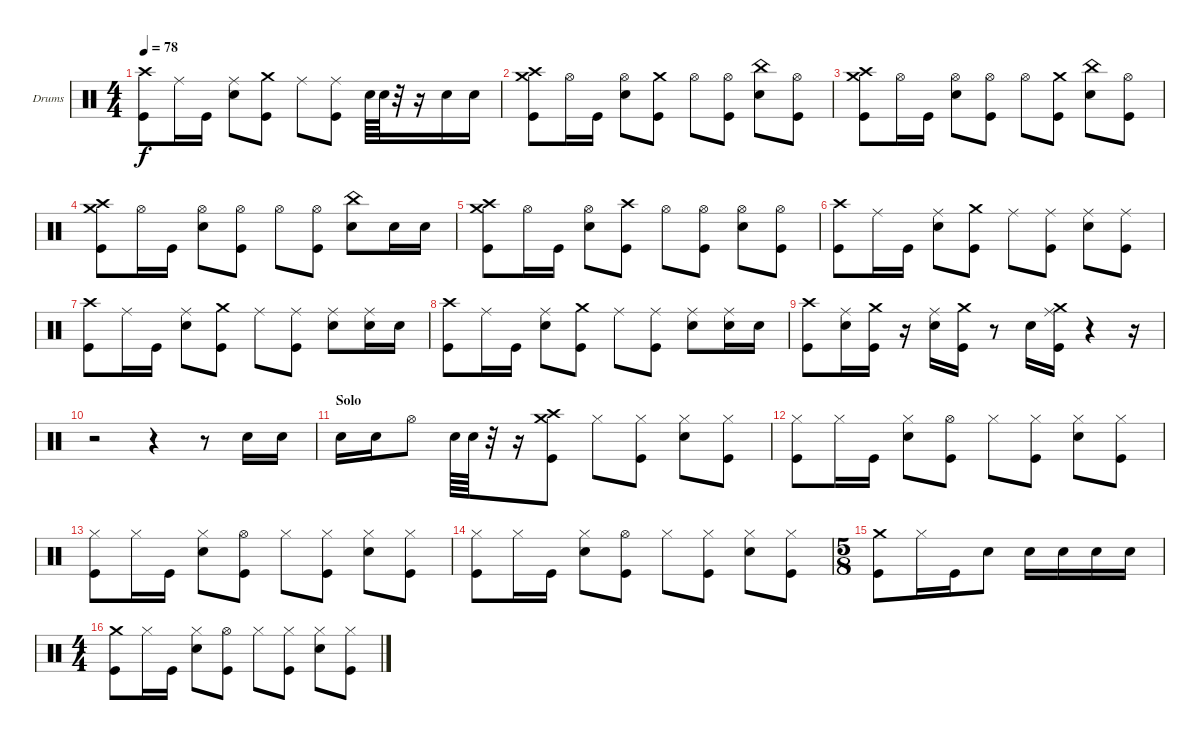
\defaultSystemsLayout 4
\bracketExtendMode nobrackets
\firstSystemTrackNameOrientation horizontal
\otherSystemsTrackNameOrientation horizontal
\track ("Dave Krusen" "Drums") {instrument percussion}
\staff {score}
\articulation defaults
\ts (4 4)
\tempo 78
\clef neutral
\ks c
("Crash high (hit)" "Kick (hit)").8{dy f} "Ride (middle)".16 "Kick (hit)".16 ("Ride (middle)" "Snare (hit) 2").8 ("Crash medium (hit)" "Kick (hit)").8 "Ride (middle)".8 ("Ride (middle)" "Kick (hit)").8 "Snare (hit) 2".64 "Snare (hit) 2".64 r.32 r.16 "Snare (hit) 2".16 "Snare (hit) 2".16 |
("Crash high (hit)" "Crash medium (hit)" "Kick (hit)").8 "Hi-Hat (open)".16 "Kick (hit)".16 ("Hi-Hat (open)" "Snare (hit) 2").8 ("Crash medium (hit)" "Kick (hit)").8 "Hi-Hat (open)".8 ("Hi-Hat (open)" "Kick (hit)").8 ("China (hit)" "Snare (hit) 2").8 ("Hi-Hat (open)" "Kick (hit)").8 |
("Crash high (hit)" "Crash medium (hit)" "Kick (hit)").8 "Hi-Hat (open)".16 "Kick (hit)".16 ("Hi-Hat (open)" "Snare (hit) 2").8 ("Hi-Hat (open)" "Kick (hit)").8 "Hi-Hat (open)".8 ("Crash medium (hit)" "Kick (hit)").8 ("China (hit)" "Snare (hit) 2").8 ("Hi-Hat (open)" "Kick (hit)").8 |
("Crash high (hit)" "Crash medium (hit)" "Kick (hit)").8 "Hi-Hat (open)".16 "Kick (hit)".16 ("Hi-Hat (open)" "Snare (hit) 2").8 ("Hi-Hat (open)" "Kick (hit)").8 "Hi-Hat (open)".8 ("Hi-Hat (open)" "Kick (hit)").8 ("China (hit)" "Snare (hit) 2").8 "Snare (hit) 2".16 "Snare (hit) 2".16 |
("Crash high (hit)" "Crash medium (hit)" "Kick (hit)").8 "Hi-Hat (open)".16 "Kick (hit)".16 ("Hi-Hat (open)" "Snare (hit) 2").8 ("Crash high (hit)" "Kick (hit)").8 "Hi-Hat (open)".8 ("Hi-Hat (open)" "Kick (hit)").8 ("Hi-Hat (open)" "Snare (hit) 2").8 ("Hi-Hat (open)" "Kick (hit)").8 |
("Crash high (hit)" "Kick (hit)").8 "Ride (middle)".16 "Kick (hit)".16 ("Ride (middle)" "Snare (hit) 2").8 ("Crash medium (hit)" "Kick (hit)").8 "Ride (middle)".8 ("Ride (middle)" "Kick (hit)").8 ("Ride (middle)" "Snare (hit) 2").8 ("Ride (middle)" "Kick (hit)").8 |
("Crash high (hit)" "Kick (hit)").8 "Ride (middle)".16 "Kick (hit)".16 ("Ride (middle)" "Snare (hit) 2").8 ("Crash medium (hit)" "Kick (hit)").8 "Ride (middle)".8 ("Ride (middle)" "Kick (hit)").8 ("Ride (middle)" "Snare (hit) 2").8 ("Ride (middle)" "Snare (hit) 2").16 "Snare (hit) 2".16 |
("Crash high (hit)" "Kick (hit)").8 "Ride (middle)".16 "Kick (hit)".16 ("Ride (middle)" "Snare (hit) 2").8 ("Crash medium (hit)" "Kick (hit)").8 "Ride (middle)".8 ("Ride (middle)" "Kick (hit)").8 ("Ride (middle)" "Snare (hit) 2").8 ("Ride (middle)" "Snare (hit) 2").16 "Snare (hit) 2".16 |
("Crash high (hit)" "Kick (hit)").8 ("Ride (middle)" "Snare (hit) 2").16 ("Crash medium (hit)" "Kick (hit)").16 r.16 ("Ride (middle)" "Snare (hit) 2").16 ("Crash medium (hit)" "Kick (hit)").16 r.8 "Snare (hit) 2".16 ("Ride (middle)" "Crash medium (hit)" "Kick (hit)").16 r.4 r.16 |
r.2 r.4 r.8 "Snare (hit) 2".16 "Snare (hit) 2".16 |
\section ("" "Solo")
"Snare (hit) 2".16 "Snare (hit) 2".16 "Hi-Hat (open)".8 "Snare (hit) 2".64 "Snare (hit) 2".64 r.32 r.16 ("Crash high (hit)" "Crash medium (hit)" "Kick (hit)").8 "Hi-Hat (closed)".8 ("Hi-Hat (closed)" "Kick (hit)").8 ("Hi-Hat (closed)" "Snare (hit) 2").8 ("Hi-Hat (closed)" "Kick (hit)").8 |
("Hi-Hat (closed)" "Kick (hit)").8 "Hi-Hat (closed)".16 "Kick (hit)".16 ("Hi-Hat (closed)" "Snare (hit) 2").8 ("Hi-Hat (open)" "Kick (hit)").8 "Hi-Hat (closed)".8 ("Hi-Hat (closed)" "Kick (hit)").8 ("Hi-Hat (closed)" "Snare (hit) 2").8 ("Hi-Hat (closed)" "Kick (hit)").8 |
("Hi-Hat (closed)" "Kick (hit)").8 "Hi-Hat (closed)".16 "Kick (hit)".16 ("Hi-Hat (closed)" "Snare (hit) 2").8 ("Hi-Hat (open)" "Kick (hit)").8 "Hi-Hat (closed)".8 ("Hi-Hat (closed)" "Kick (hit)").8 ("Hi-Hat (closed)" "Snare (hit) 2").8 ("Hi-Hat (closed)" "Kick (hit)").8 |
("Hi-Hat (closed)" "Kick (hit)").8 "Hi-Hat (closed)".16 "Kick (hit)".16 ("Hi-Hat (closed)" "Snare (hit) 2").8 ("Hi-Hat (open)" "Kick (hit)").8 "Hi-Hat (closed)".8 ("Hi-Hat (closed)" "Kick (hit)").8 ("Hi-Hat (closed)" "Snare (hit) 2").8 ("Hi-Hat (closed)" "Kick (hit)").8 |
\ts (5 8)
("Crash medium (hit)" "Kick (hit)").8 "Hi-Hat (closed)".16 "Kick (hit)".16 "Snare (hit) 2".8 "Snare (hit) 2".16 "Snare (hit) 2".16 "Snare (hit) 2".16 "Snare (hit) 2".16 |
\ts (4 4)
("Crash medium (hit)" "Kick (hit)").8 "Hi-Hat (closed)".16 "Kick (hit)".16 ("Hi-Hat (closed)" "Snare (hit) 2").8 ("Hi-Hat (open)" "Kick (hit)").8 "Hi-Hat (closed)".8 ("Hi-Hat (closed)" "Kick (hit)").8 ("Hi-Hat (closed)" "Snare (hit) 2").8 ("Hi-Hat (closed)" "Kick (hit)").8
